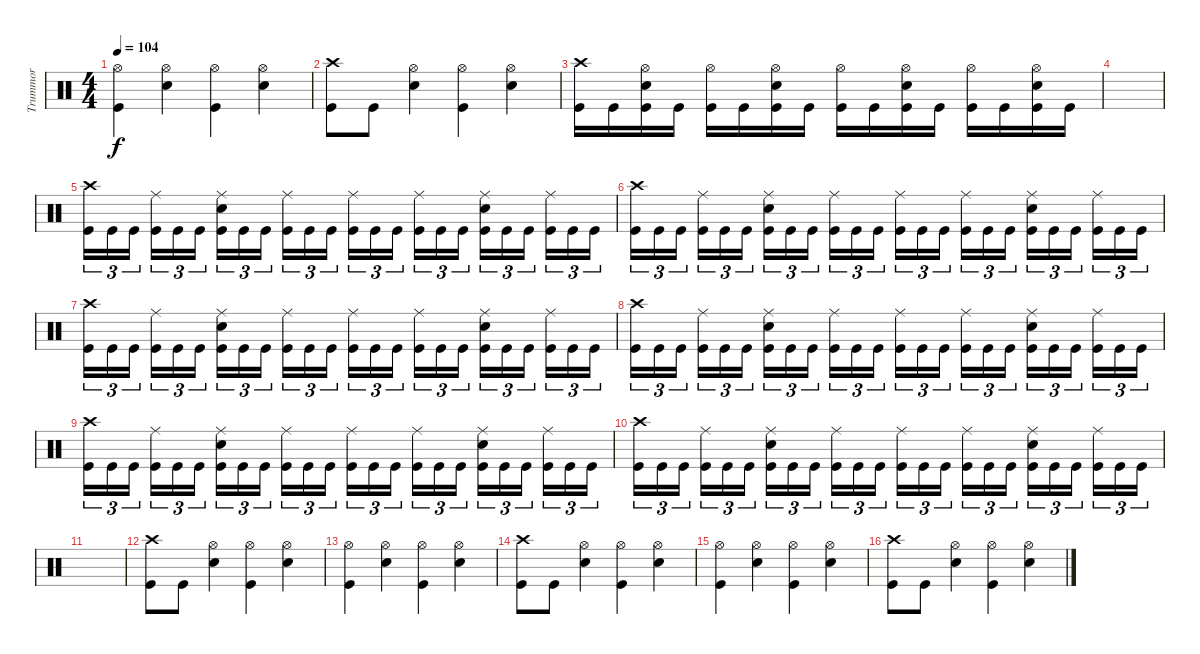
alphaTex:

\track ("Trummor" "Trummor") {instrument percussion}
\staff {score}
\articulation defaults
\ts (4 4)
\tempo 104
\clef neutral
\ks c
("Hi-Hat (open)" "Kick (hit)").4{dy f} ("Hi-Hat (open)" "Snare (hit) 2").4 ("Hi-Hat (open)" "Kick (hit)").4 ("Hi-Hat (open)" "Snare (hit) 2").4 |
("Crash high (hit)" "Kick (hit)").8 "Kick (hit)".8 ("Hi-Hat (open)" "Snare (hit) 2").4 ("Hi-Hat (open)" "Kick (hit)").4 ("Hi-Hat (open)" "Snare (hit) 2").4 |
("Crash high (hit)" "Kick (hit)").16 "Kick (hit)".16 ("Hi-Hat (open)" "Electric Snare (hit)" "Kick (hit)").16 "Kick (hit)".16 ("Hi-Hat (open)" "Kick (hit)").16 "Kick (hit)".16 ("Hi-Hat (open)" "Electric Snare (hit)" "Kick (hit)").16 "Kick (hit)".16 ("Hi-Hat (open)" "Kick (hit)").16 "Kick (hit)".16 ("Hi-Hat (open)" "Electric Snare (hit)" "Kick (hit)").16 "Kick (hit)".16 ("Hi-Hat (open)" "Kick (hit)").16 "Kick (hit)".16 ("Hi-Hat (open)" "Electric Snare (hit)" "Kick (hit)").16 "Kick (hit)".16 |
|
("Crash high (hit)" "Kick (hit)").16{tu (3 2)} "Kick (hit)".16{tu (3 2)} "Kick (hit)".16{tu (3 2)} ("Ride (middle)" "Kick (hit)").16{tu (3 2)} "Kick (hit)".16{tu (3 2)} "Kick (hit)".16{tu (3 2)} ("Ride (middle)" "Electric Snare (hit)" "Kick (hit)").16{tu (3 2)} "Kick (hit)".16{tu (3 2)} "Kick (hit)".16{tu (3 2)} ("Ride (middle)" "Kick (hit)").16{tu (3 2)} "Kick (hit)".16{tu (3 2)} "Kick (hit)".16{tu (3 2)} ("Ride (middle)" "Kick (hit)").16{tu (3 2)} "Kick (hit)".16{tu (3 2)} "Kick (hit)".16{tu (3 2)} ("Ride (middle)" "Kick (hit)").16{tu (3 2)} "Kick (hit)".16{tu (3 2)} "Kick (hit)".16{tu (3 2)} ("Ride (middle)" "Electric Snare (hit)" "Kick (hit)").16{tu (3 2)} "Kick (hit)".16{tu (3 2)} "Kick (hit)".16{tu (3 2)} ("Ride (middle)" "Kick (hit)").16{tu (3 2)} "Kick (hit)".16{tu (3 2)} "Kick (hit)".16{tu (3 2)} |
("Crash high (hit)" "Kick (hit)").16{tu (3 2)} "Kick (hit)".16{tu (3 2)} "Kick (hit)".16{tu (3 2)} ("Ride (middle)" "Kick (hit)").16{tu (3 2)} "Kick (hit)".16{tu (3 2)} "Kick (hit)".16{tu (3 2)} ("Ride (middle)" "Electric Snare (hit)" "Kick (hit)").16{tu (3 2)} "Kick (hit)".16{tu (3 2)} "Kick (hit)".16{tu (3 2)} ("Ride (middle)" "Kick (hit)").16{tu (3 2)} "Kick (hit)".16{tu (3 2)} "Kick (hit)".16{tu (3 2)} ("Ride (middle)" "Kick (hit)").16{tu (3 2)} "Kick (hit)".16{tu (3 2)} "Kick (hit)".16{tu (3 2)} ("Ride (middle)" "Kick (hit)").16{tu (3 2)} "Kick (hit)".16{tu (3 2)} "Kick (hit)".16{tu (3 2)} ("Ride (middle)" "Electric Snare (hit)" "Kick (hit)").16{tu (3 2)} "Kick (hit)".16{tu (3 2)} "Kick (hit)".16{tu (3 2)} ("Ride (middle)" "Kick (hit)").16{tu (3 2)} "Kick (hit)".16{tu (3 2)} "Kick (hit)".16{tu (3 2)} |
("Crash high (hit)" "Kick (hit)").16{tu (3 2)} "Kick (hit)".16{tu (3 2)} "Kick (hit)".16{tu (3 2)} ("Ride (middle)" "Kick (hit)").16{tu (3 2)} "Kick (hit)".16{tu (3 2)} "Kick (hit)".16{tu (3 2)} ("Ride (middle)" "Electric Snare (hit)" "Kick (hit)").16{tu (3 2)} "Kick (hit)".16{tu (3 2)} "Kick (hit)".16{tu (3 2)} ("Ride (middle)" "Kick (hit)").16{tu (3 2)} "Kick (hit)".16{tu (3 2)} "Kick (hit)".16{tu (3 2)} ("Ride (middle)" "Kick (hit)").16{tu (3 2)} "Kick (hit)".16{tu (3 2)} "Kick (hit)".16{tu (3 2)} ("Ride (middle)" "Kick (hit)").16{tu (3 2)} "Kick (hit)".16{tu (3 2)} "Kick (hit)".16{tu (3 2)} ("Ride (middle)" "Electric Snare (hit)" "Kick (hit)").16{tu (3 2)} "Kick (hit)".16{tu (3 2)} "Kick (hit)".16{tu (3 2)} ("Ride (middle)" "Kick (hit)").16{tu (3 2)} "Kick (hit)".16{tu (3 2)} "Kick (hit)".16{tu (3 2)} |
("Crash high (hit)" "Kick (hit)").16{tu (3 2)} "Kick (hit)".16{tu (3 2)} "Kick (hit)".16{tu (3 2)} ("Ride (middle)" "Kick (hit)").16{tu (3 2)} "Kick (hit)".16{tu (3 2)} "Kick (hit)".16{tu (3 2)} ("Ride (middle)" "Electric Snare (hit)" "Kick (hit)").16{tu (3 2)} "Kick (hit)".16{tu (3 2)} "Kick (hit)".16{tu (3 2)} ("Ride (middle)" "Kick (hit)").16{tu (3 2)} "Kick (hit)".16{tu (3 2)} "Kick (hit)".16{tu (3 2)} ("Ride (middle)" "Kick (hit)").16{tu (3 2)} "Kick (hit)".16{tu (3 2)} "Kick (hit)".16{tu (3 2)} ("Ride (middle)" "Kick (hit)").16{tu (3 2)} "Kick (hit)".16{tu (3 2)} "Kick (hit)".16{tu (3 2)} ("Ride (middle)" "Electric Snare (hit)" "Kick (hit)").16{tu (3 2)} "Kick (hit)".16{tu (3 2)} "Kick (hit)".16{tu (3 2)} ("Ride (middle)" "Kick (hit)").16{tu (3 2)} "Kick (hit)".16{tu (3 2)} "Kick (hit)".16{tu (3 2)} |
("Crash high (hit)" "Kick (hit)").16{tu (3 2)} "Kick (hit)".16{tu (3 2)} "Kick (hit)".16{tu (3 2)} ("Ride (middle)" "Kick (hit)").16{tu (3 2)} "Kick (hit)".16{tu (3 2)} "Kick (hit)".16{tu (3 2)} ("Ride (middle)" "Electric Snare (hit)" "Kick (hit)").16{tu (3 2)} "Kick (hit)".16{tu (3 2)} "Kick (hit)".16{tu (3 2)} ("Ride (middle)" "Kick (hit)").16{tu (3 2)} "Kick (hit)".16{tu (3 2)} "Kick (hit)".16{tu (3 2)} ("Ride (middle)" "Kick (hit)").16{tu (3 2)} "Kick (hit)".16{tu (3 2)} "Kick (hit)".16{tu (3 2)} ("Ride (middle)" "Kick (hit)").16{tu (3 2)} "Kick (hit)".16{tu (3 2)} "Kick (hit)".16{tu (3 2)} ("Ride (middle)" "Electric Snare (hit)" "Kick (hit)").16{tu (3 2)} "Kick (hit)".16{tu (3 2)} "Kick (hit)".16{tu (3 2)} ("Ride (middle)" "Kick (hit)").16{tu (3 2)} "Kick (hit)".16{tu (3 2)} "Kick (hit)".16{tu (3 2)} |
("Crash high (hit)" "Kick (hit)").16{tu (3 2)} "Kick (hit)".16{tu (3 2)} "Kick (hit)".16{tu (3 2)} ("Ride (middle)" "Kick (hit)").16{tu (3 2)} "Kick (hit)".16{tu (3 2)} "Kick (hit)".16{tu (3 2)} ("Ride (middle)" "Electric Snare (hit)" "Kick (hit)").16{tu (3 2)} "Kick (hit)".16{tu (3 2)} "Kick (hit)".16{tu (3 2)} ("Ride (middle)" "Kick (hit)").16{tu (3 2)} "Kick (hit)".16{tu (3 2)} "Kick (hit)".16{tu (3 2)} ("Ride (middle)" "Kick (hit)").16{tu (3 2)} "Kick (hit)".16{tu (3 2)} "Kick (hit)".16{tu (3 2)} ("Ride (middle)" "Kick (hit)").16{tu (3 2)} "Kick (hit)".16{tu (3 2)} "Kick (hit)".16{tu (3 2)} ("Ride (middle)" "Electric Snare (hit)" "Kick (hit)").16{tu (3 2)} "Kick (hit)".16{tu (3 2)} "Kick (hit)".16{tu (3 2)} ("Ride (middle)" "Kick (hit)").16{tu (3 2)} "Kick (hit)".16{tu (3 2)} "Kick (hit)".16{tu (3 2)} |
|
("Crash high (hit)" "Kick (hit)").8 "Kick (hit)".8 ("Hi-Hat (open)" "Snare (hit) 2").4 ("Hi-Hat (open)" "Kick (hit)").4 ("Hi-Hat (open)" "Snare (hit) 2").4 |
("Hi-Hat (open)" "Kick (hit)").4 ("Hi-Hat (open)" "Snare (hit) 2").4 ("Hi-Hat (open)" "Kick (hit)").4 ("Hi-Hat (open)" "Snare (hit) 2").4 |
("Crash high (hit)" "Kick (hit)").8 "Kick (hit)".8 ("Hi-Hat (open)" "Snare (hit) 2").4 ("Hi-Hat (open)" "Kick (hit)").4 ("Hi-Hat (open)" "Snare (hit) 2").4 |
("Hi-Hat (open)" "Kick (hit)").4 ("Hi-Hat (open)" "Snare (hit) 2").4 ("Hi-Hat (open)" "Kick (hit)").4 ("Hi-Hat (open)" "Snare (hit) 2").4 |
("Crash high (hit)" "Kick (hit)").8 "Kick (hit)".8 ("Hi-Hat (open)" "Snare (hit) 2").4 ("Hi-Hat (open)" "Kick (hit)").4 ("Hi-Hat (open)" "Snare (hit) 2").4
